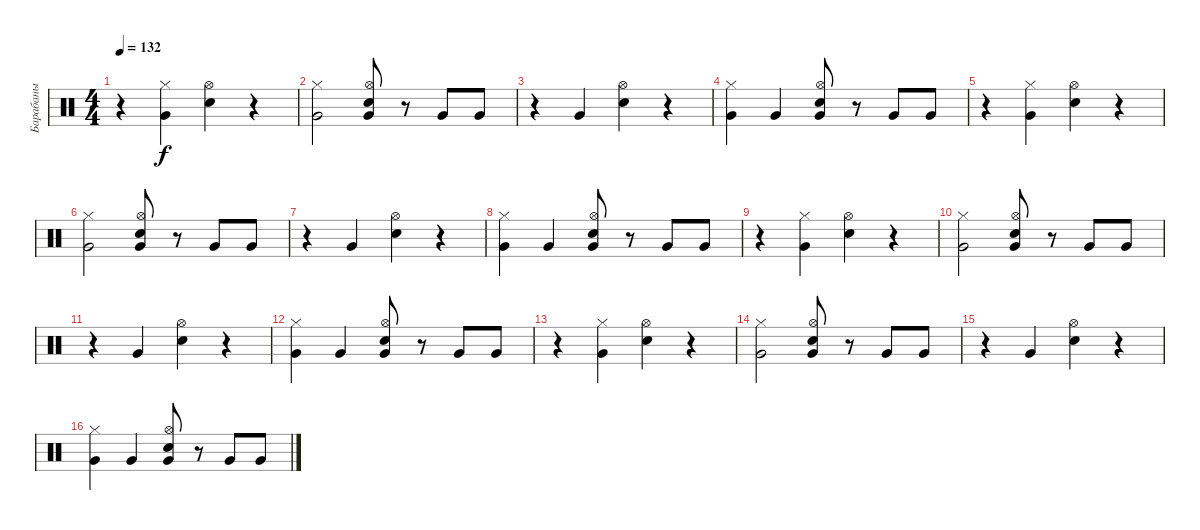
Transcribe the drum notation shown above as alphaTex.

\track ("Барабаны" "Барабаны") {instrument percussion}
\staff {score}
\articulation defaults
\ts (4 4)
\tempo 132
\clef neutral
\ks c
r.4{dy f} ("Very Low Tom (hit)" "Hi-Hat (closed)").4 ("Snare (hit) 2" "Hi-Hat (open)").4 r.4 |
("Hi-Hat (closed)" "Very Low Tom (hit)").2 ("Electric Snare (hit)" "Hi-Hat (open)" "Very Low Tom (hit)").8 r.8 "Very Low Tom (hit)".8 "Very Low Tom (hit)".8 |
r.4 "Very Low Tom (hit)".4 ("Snare (hit) 2" "Hi-Hat (open)").4 r.4 |
("Hi-Hat (closed)" "Very Low Tom (hit)").4 "Very Low Tom (hit)".4 ("Electric Snare (hit)" "Hi-Hat (open)" "Very Low Tom (hit)").8 r.8 "Very Low Tom (hit)".8 "Very Low Tom (hit)".8 |
r.4 ("Very Low Tom (hit)" "Hi-Hat (closed)").4 ("Snare (hit) 2" "Hi-Hat (open)").4 r.4 |
("Hi-Hat (closed)" "Very Low Tom (hit)").2 ("Electric Snare (hit)" "Hi-Hat (open)" "Very Low Tom (hit)").8 r.8 "Very Low Tom (hit)".8 "Very Low Tom (hit)".8 |
r.4 "Very Low Tom (hit)".4 ("Snare (hit) 2" "Hi-Hat (open)").4 r.4 |
("Hi-Hat (closed)" "Very Low Tom (hit)").4 "Very Low Tom (hit)".4 ("Electric Snare (hit)" "Hi-Hat (open)" "Very Low Tom (hit)").8 r.8 "Very Low Tom (hit)".8 "Very Low Tom (hit)".8 |
r.4 ("Very Low Tom (hit)" "Hi-Hat (closed)").4 ("Snare (hit) 2" "Hi-Hat (open)").4 r.4 |
("Hi-Hat (closed)" "Very Low Tom (hit)").2 ("Electric Snare (hit)" "Hi-Hat (open)" "Very Low Tom (hit)").8 r.8 "Very Low Tom (hit)".8 "Very Low Tom (hit)".8 |
r.4 "Very Low Tom (hit)".4 ("Snare (hit) 2" "Hi-Hat (open)").4 r.4 |
("Hi-Hat (closed)" "Very Low Tom (hit)").4 "Very Low Tom (hit)".4 ("Electric Snare (hit)" "Hi-Hat (open)" "Very Low Tom (hit)").8 r.8 "Very Low Tom (hit)".8 "Very Low Tom (hit)".8 |
r.4 ("Very Low Tom (hit)" "Hi-Hat (closed)").4 ("Snare (hit) 2" "Hi-Hat (open)").4 r.4 |
("Hi-Hat (closed)" "Very Low Tom (hit)").2 ("Electric Snare (hit)" "Hi-Hat (open)" "Very Low Tom (hit)").8 r.8 "Very Low Tom (hit)".8 "Very Low Tom (hit)".8 |
r.4 "Very Low Tom (hit)".4 ("Snare (hit) 2" "Hi-Hat (open)").4 r.4 |
("Hi-Hat (closed)" "Very Low Tom (hit)").4 "Very Low Tom (hit)".4 ("Electric Snare (hit)" "Hi-Hat (open)" "Very Low Tom (hit)").8 r.8 "Very Low Tom (hit)".8 "Very Low Tom (hit)".8
